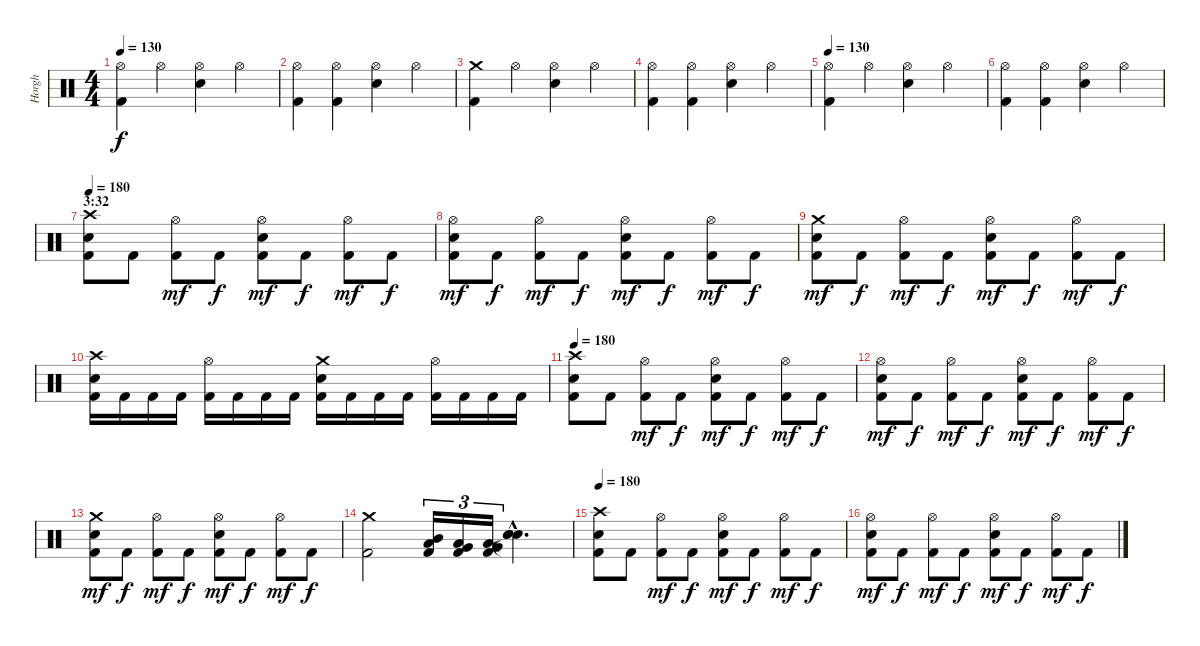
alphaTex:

\track ("Horgh" "Horgh") {instrument percussion}
\staff {score}
\articulation defaults
\ts (4 4)
\tempo 130
\clef neutral
\ks c
("Hi-Hat (open)" "Kick (hit) 2").4{dy f} "Hi-Hat (open)".4 ("Hi-Hat (open)" "Electric Snare (hit)").4 "Hi-Hat (open)".4 |
("Hi-Hat (open)" "Kick (hit) 2").4 ("Hi-Hat (open)" "Kick (hit) 2").4 ("Hi-Hat (open)" "Electric Snare (hit)").4 "Hi-Hat (open)".4 |
("Crash medium (hit)" "Kick (hit) 2").4 "Hi-Hat (open)".4 ("Hi-Hat (open)" "Electric Snare (hit)").4 "Hi-Hat (open)".4 |
("Hi-Hat (open)" "Kick (hit) 2").4 ("Hi-Hat (open)" "Kick (hit) 2").4 ("Hi-Hat (open)" "Electric Snare (hit)").4 "Hi-Hat (open)".4 |
\tempo 130
("Hi-Hat (open)" "Kick (hit) 2").4 "Hi-Hat (open)".4 ("Hi-Hat (open)" "Electric Snare (hit)").4 "Hi-Hat (open)".4 |
("Hi-Hat (open)" "Kick (hit) 2").4 ("Hi-Hat (open)" "Kick (hit) 2").4 ("Hi-Hat (open)" "Electric Snare (hit)").4 "Hi-Hat (open)".4 |
\section ("" "3:32")
\tempo 180
("Crash high (hit)" "Electric Snare (hit)" "Kick (hit) 2").8 "Kick (hit) 2".8 ("Hi-Hat (open)" "Kick (hit) 2").8{dy mf} "Kick (hit) 2".8{dy f} ("Hi-Hat (open)" "Electric Snare (hit)" "Kick (hit) 2").8{dy mf} "Kick (hit) 2".8{dy f} ("Hi-Hat (open)" "Kick (hit) 2").8{dy mf} "Kick (hit) 2".8{dy f} |
("Hi-Hat (open)" "Electric Snare (hit)" "Kick (hit) 2").8{dy mf} "Kick (hit) 2".8{dy f} ("Hi-Hat (open)" "Kick (hit) 2").8{dy mf} "Kick (hit) 2".8{dy f} ("Hi-Hat (open)" "Electric Snare (hit)" "Kick (hit) 2").8{dy mf} "Kick (hit) 2".8{dy f} ("Hi-Hat (open)" "Kick (hit) 2").8{dy mf} "Kick (hit) 2".8{dy f} |
("Crash medium (hit)" "Electric Snare (hit)" "Kick (hit) 2").8{dy mf} "Kick (hit) 2".8{dy f} ("Hi-Hat (open)" "Kick (hit) 2").8{dy mf} "Kick (hit) 2".8{dy f} ("Hi-Hat (open)" "Electric Snare (hit)" "Kick (hit) 2").8{dy mf} "Kick (hit) 2".8{dy f} ("Hi-Hat (open)" "Kick (hit) 2").8{dy mf} "Kick (hit) 2".8{dy f} |
("Crash high (hit)" "Electric Snare (hit)" "Kick (hit) 2").16 "Kick (hit) 2".16 "Kick (hit) 2".16 "Kick (hit) 2".16 ("Hi-Hat (open)" "Kick (hit) 2").16 "Kick (hit) 2".16 "Kick (hit) 2".16 "Kick (hit) 2".16 ("Crash medium (hit)" "Electric Snare (hit)" "Kick (hit) 2").16 "Kick (hit) 2".16 "Kick (hit) 2".16 "Kick (hit) 2".16 ("Hi-Hat (open)" "Kick (hit) 2").16 "Kick (hit) 2".16 "Kick (hit) 2".16 "Kick (hit) 2".16 |
\tempo 180
("Crash high (hit)" "Electric Snare (hit)" "Kick (hit) 2").8 "Kick (hit) 2".8 ("Hi-Hat (open)" "Kick (hit) 2").8{dy mf} "Kick (hit) 2".8{dy f} ("Hi-Hat (open)" "Electric Snare (hit)" "Kick (hit) 2").8{dy mf} "Kick (hit) 2".8{dy f} ("Hi-Hat (open)" "Kick (hit) 2").8{dy mf} "Kick (hit) 2".8{dy f} |
("Hi-Hat (open)" "Electric Snare (hit)" "Kick (hit) 2").8{dy mf} "Kick (hit) 2".8{dy f} ("Hi-Hat (open)" "Kick (hit) 2").8{dy mf} "Kick (hit) 2".8{dy f} ("Hi-Hat (open)" "Electric Snare (hit)" "Kick (hit) 2").8{dy mf} "Kick (hit) 2".8{dy f} ("Hi-Hat (open)" "Kick (hit) 2").8{dy mf} "Kick (hit) 2".8{dy f} |
("Crash medium (hit)" "Electric Snare (hit)" "Kick (hit) 2").8{dy mf} "Kick (hit) 2".8{dy f} ("Hi-Hat (open)" "Kick (hit) 2").8{dy mf} "Kick (hit) 2".8{dy f} ("Hi-Hat (open)" "Electric Snare (hit)" "Kick (hit) 2").8{dy mf} "Kick (hit) 2".8{dy f} ("Hi-Hat (open)" "Kick (hit) 2").8{dy mf} "Kick (hit) 2".8{dy f} |
("Crash medium (hit)" "Kick (hit) 2").2 ("Mid Tom (hit)" "Low Tom (hit)" "Kick (hit) 2").16{tu (3 2)} ("Low Tom (hit)" "Very Low Tom (hit)" "Kick (hit) 2").16{tu (3 2)} ("Very Low Tom (hit)" "Low Floor Tom (hit)" "Kick (hit) 2").16{tu (3 2)} ("Snare (hit)"{hac t} "Snare (hit)"{hac t} "Snare (hit)"{hac t}).4{d} |
\tempo 180
("Crash high (hit)" "Electric Snare (hit)" "Kick (hit) 2").8 "Kick (hit) 2".8 ("Hi-Hat (open)" "Kick (hit) 2").8{dy mf} "Kick (hit) 2".8{dy f} ("Hi-Hat (open)" "Electric Snare (hit)" "Kick (hit) 2").8{dy mf} "Kick (hit) 2".8{dy f} ("Hi-Hat (open)" "Kick (hit) 2").8{dy mf} "Kick (hit) 2".8{dy f} |
("Hi-Hat (open)" "Electric Snare (hit)" "Kick (hit) 2").8{dy mf} "Kick (hit) 2".8{dy f} ("Hi-Hat (open)" "Kick (hit) 2").8{dy mf} "Kick (hit) 2".8{dy f} ("Hi-Hat (open)" "Electric Snare (hit)" "Kick (hit) 2").8{dy mf} "Kick (hit) 2".8{dy f} ("Hi-Hat (open)" "Kick (hit) 2").8{dy mf} "Kick (hit) 2".8{dy f}
